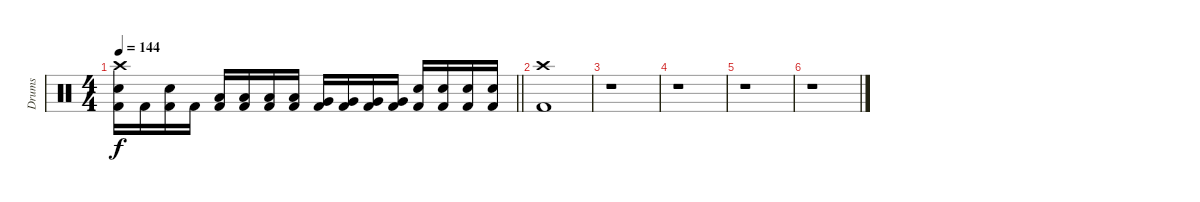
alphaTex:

\track ("Drums" "Drums") {instrument percussion}
\staff {score}
\articulation defaults
\ts (4 4)
\tempo 144
\clef neutral
\barLineRight lightlight
\ks c
("Kick (hit) 2" "Snare (hit) 2" "Crash high (hit)").16{dy f} "Kick (hit) 2".16 ("Kick (hit) 2" "Snare (hit) 2").16 "Kick (hit) 2".16 ("Kick (hit) 2" "Low Tom (hit)").16 ("Kick (hit) 2" "Low Tom (hit)").16 ("Kick (hit) 2" "Low Tom (hit)").16 ("Kick (hit) 2" "Low Tom (hit)").16 ("Kick (hit) 2" "Very Low Tom (hit)").16 ("Kick (hit) 2" "Very Low Tom (hit)").16 ("Kick (hit) 2" "Very Low Tom (hit)").16 ("Kick (hit) 2" "Very Low Tom (hit)").16 ("Kick (hit) 2" "Snare (hit) 2").16 ("Kick (hit) 2" "Snare (hit) 2").16 ("Kick (hit) 2" "Snare (hit) 2").16 ("Kick (hit) 2" "Snare (hit) 2").16 |
\section ("" " ")
("Kick (hit) 2" "Crash high (hit)").1 |
r.1 |
r.1 |
r.1 |
r.1
